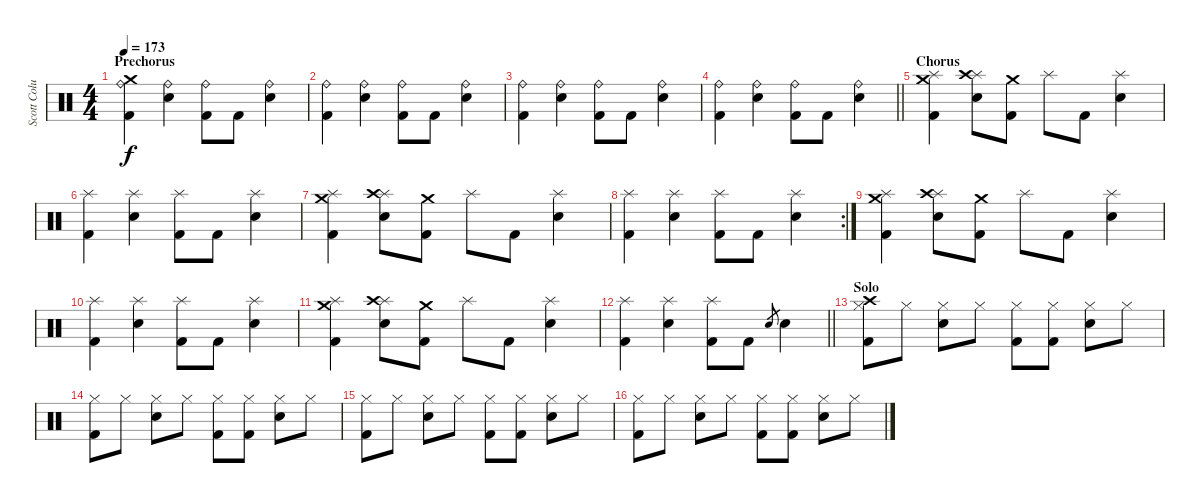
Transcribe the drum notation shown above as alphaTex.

\track ("Scott Columbus" "Scott Colu") {instrument percussion}
\staff {score}
\articulation defaults
\ts (4 4)
\section ("" "Prechorus")
\tempo 173
\clef neutral
\ks c
("Kick (hit) 2" "Ride (bell)" "Crash medium (hit)").4{dy f} ("Snare (hit) 2" "Ride (bell)").4 ("Kick (hit) 2" "Ride (bell)").8 "Kick (hit) 2".8 ("Snare (hit) 2" "Ride (bell)").4 |
("Kick (hit) 2" "Ride (bell)").4 ("Snare (hit) 2" "Ride (bell)").4 ("Kick (hit) 2" "Ride (bell)").8 "Kick (hit) 2".8 ("Snare (hit) 2" "Ride (bell)").4 |
("Kick (hit) 2" "Ride (bell)").4 ("Snare (hit) 2" "Ride (bell)").4 ("Kick (hit) 2" "Ride (bell)").8 "Kick (hit) 2".8 ("Snare (hit) 2" "Ride (bell)").4 |
\barLineRight lightlight
("Kick (hit) 2" "Ride (bell)").4 ("Snare (hit) 2" "Ride (bell)").4 ("Kick (hit) 2" "Ride (bell)").8 "Kick (hit) 2".8 ("Snare (hit) 2" "Ride (bell)").4 |
\section ("" "Chorus")
("Kick (hit) 2" "Splash (hit)" "Crash medium (hit)").4 ("Snare (hit) 2" "Splash (hit)" "Crash high (hit)").8 ("Kick (hit) 2" "Crash medium (hit)").8 "Splash (hit)".8 "Kick (hit) 2".8 ("Snare (hit) 2" "Splash (hit)").4 |
("Kick (hit) 2" "Splash (hit)").4 ("Snare (hit) 2" "Splash (hit)").4 ("Kick (hit) 2" "Splash (hit)").8 "Kick (hit) 2".8 ("Snare (hit) 2" "Splash (hit)").4 |
("Kick (hit) 2" "Splash (hit)" "Crash medium (hit)").4 ("Snare (hit) 2" "Splash (hit)" "Crash high (hit)").8 ("Kick (hit) 2" "Crash medium (hit)").8 "Splash (hit)".8 "Kick (hit) 2".8 ("Snare (hit) 2" "Splash (hit)").4 |
\rc 2
("Kick (hit) 2" "Splash (hit)").4 ("Snare (hit) 2" "Splash (hit)").4 ("Kick (hit) 2" "Splash (hit)").8 "Kick (hit) 2".8 ("Snare (hit) 2" "Splash (hit)").4 |
("Kick (hit) 2" "Splash (hit)" "Crash medium (hit)").4 ("Snare (hit) 2" "Splash (hit)" "Crash high (hit)").8 ("Kick (hit) 2" "Crash medium (hit)").8 "Splash (hit)".8 "Kick (hit) 2".8 ("Snare (hit) 2" "Splash (hit)").4 |
("Kick (hit) 2" "Splash (hit)").4 ("Snare (hit) 2" "Splash (hit)").4 ("Kick (hit) 2" "Splash (hit)").8 "Kick (hit) 2".8 ("Snare (hit) 2" "Splash (hit)").4 |
("Kick (hit) 2" "Splash (hit)" "Crash medium (hit)").4 ("Snare (hit) 2" "Splash (hit)" "Crash high (hit)").8 ("Kick (hit) 2" "Crash medium (hit)").8 "Splash (hit)".8 "Kick (hit) 2".8 ("Snare (hit) 2" "Splash (hit)").4 |
\barLineRight lightlight
("Kick (hit) 2" "Splash (hit)").4 ("Snare (hit) 2" "Splash (hit)").4 ("Kick (hit) 2" "Splash (hit)").8 "Kick (hit) 2".8 "Snare (hit) 2".8{gr} "Snare (hit) 2".4 |
\section ("" "Solo")
("Kick (hit) 2" "Hi-Hat (closed)" "Crash high (hit)").8 "Hi-Hat (closed)".8 ("Snare (hit) 2" "Hi-Hat (closed)").8 "Hi-Hat (closed)".8 ("Kick (hit) 2" "Hi-Hat (closed)").8 ("Kick (hit) 2" "Hi-Hat (closed)").8 ("Snare (hit) 2" "Hi-Hat (closed)").8 "Hi-Hat (closed)".8 |
("Kick (hit) 2" "Hi-Hat (closed)").8 "Hi-Hat (closed)".8 ("Snare (hit) 2" "Hi-Hat (closed)").8 "Hi-Hat (closed)".8 ("Kick (hit) 2" "Hi-Hat (closed)").8 ("Kick (hit) 2" "Hi-Hat (closed)").8 ("Snare (hit) 2" "Hi-Hat (closed)").8 "Hi-Hat (closed)".8 |
("Kick (hit) 2" "Hi-Hat (closed)").8 "Hi-Hat (closed)".8 ("Snare (hit) 2" "Hi-Hat (closed)").8 "Hi-Hat (closed)".8 ("Kick (hit) 2" "Hi-Hat (closed)").8 ("Kick (hit) 2" "Hi-Hat (closed)").8 ("Snare (hit) 2" "Hi-Hat (closed)").8 "Hi-Hat (closed)".8 |
("Kick (hit) 2" "Hi-Hat (closed)").8 "Hi-Hat (closed)".8 ("Snare (hit) 2" "Hi-Hat (closed)").8 "Hi-Hat (closed)".8 ("Kick (hit) 2" "Hi-Hat (closed)").8 ("Kick (hit) 2" "Hi-Hat (closed)").8 ("Snare (hit) 2" "Hi-Hat (closed)").8 "Hi-Hat (closed)".8
